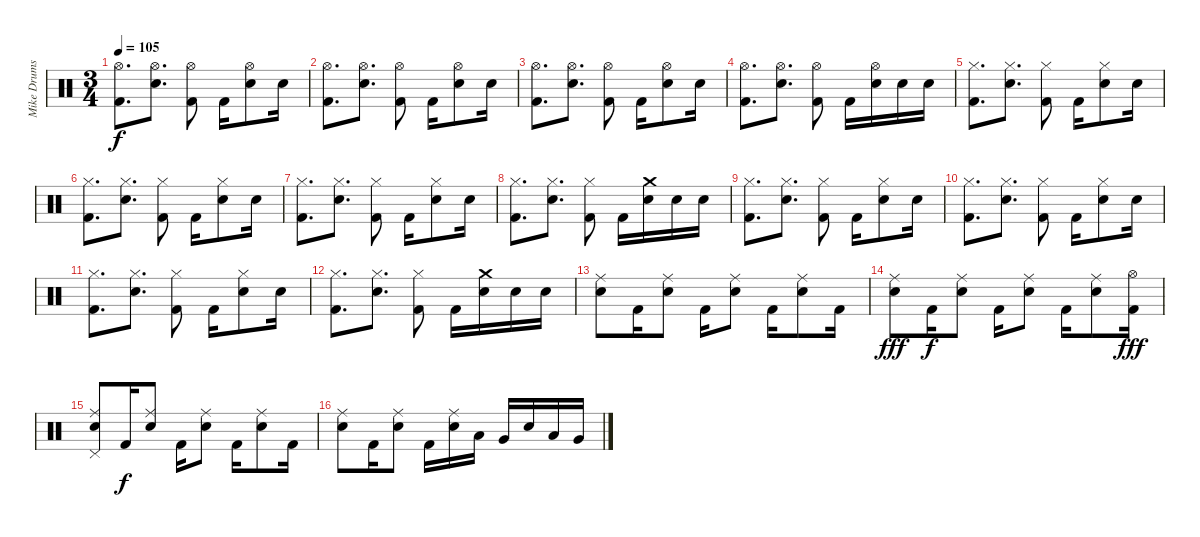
\track ("Mike Drums" "Mike Drums") {instrument percussion}
\staff {score}
\articulation defaults
\ts (3 4)
\tempo 105
\clef neutral
\ks c
("Hi-Hat (open)" "Kick (hit) 2").8{d dy f} ("Hi-Hat (open)" "Electric Snare (hit)").8{d} ("Hi-Hat (open)" "Kick (hit) 2").8 "Kick (hit) 2".16 ("Hi-Hat (open)" "Electric Snare (hit)").8 "Electric Snare (hit)".16 |
("Hi-Hat (open)" "Kick (hit) 2").8{d} ("Hi-Hat (open)" "Electric Snare (hit)").8{d} ("Hi-Hat (open)" "Kick (hit) 2").8 "Kick (hit) 2".16 ("Hi-Hat (open)" "Electric Snare (hit)").8 "Electric Snare (hit)".16 |
("Hi-Hat (open)" "Kick (hit) 2").8{d} ("Hi-Hat (open)" "Electric Snare (hit)").8{d} ("Hi-Hat (open)" "Kick (hit) 2").8 "Kick (hit) 2".16 ("Hi-Hat (open)" "Electric Snare (hit)").8 "Electric Snare (hit)".16 |
("Hi-Hat (open)" "Kick (hit) 2").8{d} ("Hi-Hat (open)" "Electric Snare (hit)").8{d} ("Hi-Hat (open)" "Kick (hit) 2").8 "Kick (hit) 2".16 ("Hi-Hat (open)" "Electric Snare (hit)").16 "Electric Snare (hit)".16 "Electric Snare (hit)".16 |
("Hi-Hat (closed)" "Kick (hit) 2").8{d} ("Hi-Hat (closed)" "Electric Snare (hit)").8{d} ("Hi-Hat (closed)" "Kick (hit) 2").8 "Kick (hit) 2".16 ("Hi-Hat (closed)" "Electric Snare (hit)").8 "Electric Snare (hit)".16 |
("Hi-Hat (closed)" "Kick (hit) 2").8{d} ("Hi-Hat (closed)" "Electric Snare (hit)").8{d} ("Hi-Hat (closed)" "Kick (hit) 2").8 "Kick (hit) 2".16 ("Hi-Hat (closed)" "Electric Snare (hit)").8 "Electric Snare (hit)".16 |
("Hi-Hat (closed)" "Kick (hit) 2").8{d} ("Hi-Hat (closed)" "Electric Snare (hit)").8{d} ("Hi-Hat (closed)" "Kick (hit) 2").8 "Kick (hit) 2".16 ("Hi-Hat (closed)" "Electric Snare (hit)").8 "Electric Snare (hit)".16 |
("Hi-Hat (closed)" "Kick (hit) 2").8{d} ("Hi-Hat (closed)" "Electric Snare (hit)").8{d} ("Hi-Hat (closed)" "Kick (hit) 2").8 "Kick (hit) 2".16 ("Crash medium (hit)" "Electric Snare (hit)").16 "Electric Snare (hit)".16 "Electric Snare (hit)".16 |
("Hi-Hat (closed)" "Kick (hit) 2").8{d} ("Hi-Hat (closed)" "Electric Snare (hit)").8{d} ("Hi-Hat (closed)" "Kick (hit) 2").8 "Kick (hit) 2".16 ("Hi-Hat (closed)" "Electric Snare (hit)").8 "Electric Snare (hit)".16 |
("Hi-Hat (closed)" "Kick (hit) 2").8{d} ("Hi-Hat (closed)" "Electric Snare (hit)").8{d} ("Hi-Hat (closed)" "Kick (hit) 2").8 "Kick (hit) 2".16 ("Hi-Hat (closed)" "Electric Snare (hit)").8 "Electric Snare (hit)".16 |
("Hi-Hat (closed)" "Kick (hit) 2").8{d} ("Hi-Hat (closed)" "Electric Snare (hit)").8{d} ("Hi-Hat (closed)" "Kick (hit) 2").8 "Kick (hit) 2".16 ("Hi-Hat (closed)" "Electric Snare (hit)").8 "Electric Snare (hit)".16 |
("Hi-Hat (closed)" "Kick (hit) 2").8{d} ("Hi-Hat (closed)" "Electric Snare (hit)").8{d} ("Hi-Hat (closed)" "Kick (hit) 2").8 "Kick (hit) 2".16 ("Crash medium (hit)" "Electric Snare (hit)").16 "Electric Snare (hit)".16 "Electric Snare (hit)".16 |
("Ride (middle)" "Electric Snare (hit)").8 "Kick (hit) 2".16 ("Ride (middle)" "Electric Snare (hit)").8 "Kick (hit) 2".16 ("Ride (middle)" "Electric Snare (hit)").8 "Kick (hit) 2".16 ("Ride (middle)" "Electric Snare (hit)").8 "Kick (hit) 2".16 |
("Ride (middle)" "Electric Snare (hit)").8{dy fff} "Kick (hit) 2".16{dy f} ("Ride (middle)" "Electric Snare (hit)").8 "Kick (hit) 2".16 ("Ride (middle)" "Electric Snare (hit)").8 "Kick (hit) 2".16 ("Ride (middle)" "Electric Snare (hit)").8 ("Hi-Hat (open)" "Kick (hit) 2").16{dy fff} |
("Ride (middle)" "Pedal Hi-Hat (hit)" "Electric Snare (hit)").8 "Kick (hit) 2".16{dy f} ("Ride (middle)" "Electric Snare (hit)").8 "Kick (hit) 2".16 ("Ride (middle)" "Electric Snare (hit)").8 "Kick (hit) 2".16 ("Ride (middle)" "Electric Snare (hit)").8 "Kick (hit) 2".16 |
("Ride (middle)" "Electric Snare (hit)").8 "Kick (hit) 2".16 ("Ride (middle)" "Electric Snare (hit)").8 "Kick (hit) 2".16 ("Ride (middle)" "Electric Snare (hit)").16 "Low Tom (hit)".16 "Very Low Tom (hit)".16 "Electric Snare (hit)".16 "Low Tom (hit)".16 "Very Low Tom (hit)".16
